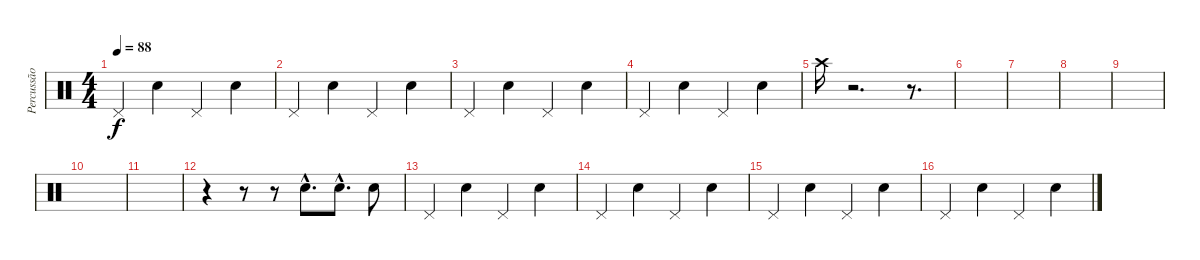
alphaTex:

\track ("Percussão" "Percussão") {instrument percussion}
\staff {score}
\articulation defaults
\ts (4 4)
\tempo 88
\clef neutral
\ks c "Pedal Hi-Hat (hit)".4{dy f} "Electric Snare (hit)".4 "Pedal Hi-Hat (hit)".4 "Electric Snare (hit)".4
|
"Pedal Hi-Hat (hit)".4 "Electric Snare (hit)".4 "Pedal Hi-Hat (hit)".4 "Electric Snare (hit)".4 |
"Pedal Hi-Hat (hit)".4 "Electric Snare (hit)".4 "Pedal Hi-Hat (hit)".4 "Electric Snare (hit)".4 |
"Pedal Hi-Hat (hit)".4 "Electric Snare (hit)".4 "Pedal Hi-Hat (hit)".4 "Electric Snare (hit)".4 |
"Crash high (hit)".16 r.2{d} r.8{d} |
|
|
|
|
|
|
r.4 r.8 r.8 "Electric Snare (hit)"{hac}.8{d} "Electric Snare (hit)"{hac}.8{d} "Electric Snare (hit)".8 |
"Pedal Hi-Hat (hit)".4 "Electric Snare (hit)".4 "Pedal Hi-Hat (hit)".4 "Electric Snare (hit)".4 |
"Pedal Hi-Hat (hit)".4 "Electric Snare (hit)".4 "Pedal Hi-Hat (hit)".4 "Electric Snare (hit)".4 |
"Pedal Hi-Hat (hit)".4 "Electric Snare (hit)".4 "Pedal Hi-Hat (hit)".4 "Electric Snare (hit)".4 |
"Pedal Hi-Hat (hit)".4 "Electric Snare (hit)".4 "Pedal Hi-Hat (hit)".4 "Electric Snare (hit)".4
